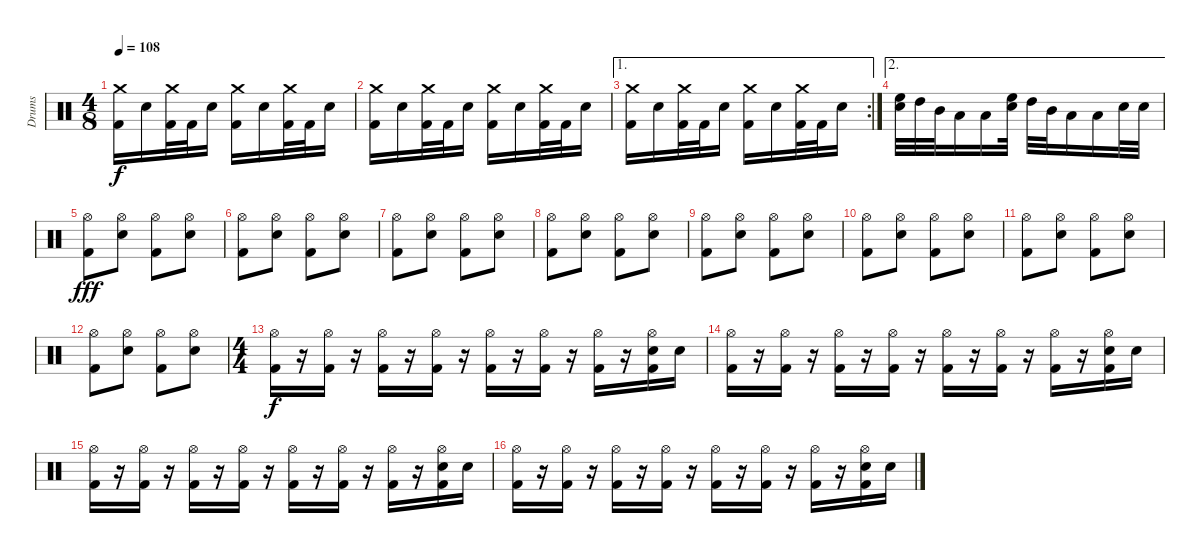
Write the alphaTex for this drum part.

\track ("Drums" "Drums") {instrument percussion}
\staff {score}
\articulation defaults
\ts (4 8)
\tempo 108
\clef neutral
\ks c
("Crash medium (hit)" "Kick (hit) 2").16{dy f} "Electric Snare (hit)".16 ("Crash medium (hit)" "Kick (hit) 2").32 "Kick (hit) 2".32 "Electric Snare (hit)".16 ("Crash medium (hit)" "Kick (hit) 2").16 "Electric Snare (hit)".16 ("Crash medium (hit)" "Kick (hit) 2").32 "Kick (hit) 2".32 "Electric Snare (hit)".16 |
("Crash medium (hit)" "Kick (hit) 2").16 "Electric Snare (hit)".16 ("Crash medium (hit)" "Kick (hit) 2").32 "Kick (hit) 2".32 "Electric Snare (hit)".16 ("Crash medium (hit)" "Kick (hit) 2").16 "Electric Snare (hit)".16 ("Crash medium (hit)" "Kick (hit) 2").32 "Kick (hit) 2".32 "Electric Snare (hit)".16 |
\ae 1
\rc 2
("Crash medium (hit)" "Kick (hit) 2").16 "Electric Snare (hit)".16 ("Crash medium (hit)" "Kick (hit) 2").32 "Kick (hit) 2".32 "Electric Snare (hit)".16 ("Crash medium (hit)" "Kick (hit) 2").16 "Electric Snare (hit)".16 ("Crash medium (hit)" "Kick (hit) 2").32 "Kick (hit) 2".32 "Electric Snare (hit)".16 |
\ae 2
("High Floor Tom (hit)" "Electric Snare (hit)").32 "High Tom (hit)".32 "Mid Tom (hit)".32 "Low Tom (hit)".16 "Low Tom (hit)".16 ("High Floor Tom (hit)" "Electric Snare (hit)").32 "High Tom (hit)".32 "Mid Tom (hit)".32 "Low Tom (hit)".16 "Low Tom (hit)".16 "Electric Snare (hit)".32 "Electric Snare (hit)".32 |
("Hi-Hat (open)" "Kick (hit) 2").8{dy fff} ("Hi-Hat (open)" "Electric Snare (hit)").8 ("Hi-Hat (open)" "Kick (hit) 2").8 ("Hi-Hat (open)" "Electric Snare (hit)").8 |
("Hi-Hat (open)" "Kick (hit) 2").8 ("Hi-Hat (open)" "Electric Snare (hit)").8 ("Hi-Hat (open)" "Kick (hit) 2").8 ("Hi-Hat (open)" "Electric Snare (hit)").8 |
("Hi-Hat (open)" "Kick (hit) 2").8 ("Hi-Hat (open)" "Electric Snare (hit)").8 ("Hi-Hat (open)" "Kick (hit) 2").8 ("Hi-Hat (open)" "Electric Snare (hit)").8 |
("Hi-Hat (open)" "Kick (hit) 2").8 ("Hi-Hat (open)" "Electric Snare (hit)").8 ("Hi-Hat (open)" "Kick (hit) 2").8 ("Hi-Hat (open)" "Electric Snare (hit)").8 |
("Hi-Hat (open)" "Kick (hit) 2").8 ("Hi-Hat (open)" "Electric Snare (hit)").8 ("Hi-Hat (open)" "Kick (hit) 2").8 ("Hi-Hat (open)" "Electric Snare (hit)").8 |
("Hi-Hat (open)" "Kick (hit) 2").8 ("Hi-Hat (open)" "Electric Snare (hit)").8 ("Hi-Hat (open)" "Kick (hit) 2").8 ("Hi-Hat (open)" "Electric Snare (hit)").8 |
("Hi-Hat (open)" "Kick (hit) 2").8 ("Hi-Hat (open)" "Electric Snare (hit)").8 ("Hi-Hat (open)" "Kick (hit) 2").8 ("Hi-Hat (open)" "Electric Snare (hit)").8 |
("Hi-Hat (open)" "Kick (hit) 2").8 ("Hi-Hat (open)" "Electric Snare (hit)").8 ("Hi-Hat (open)" "Kick (hit) 2").8 ("Hi-Hat (open)" "Electric Snare (hit)").8 |
\ts (4 4)
("Hi-Hat (open)" "Kick (hit) 2").16{dy f} r.16 ("Hi-Hat (open)" "Kick (hit) 2").16 r.16 ("Hi-Hat (open)" "Kick (hit) 2").16 r.16 ("Hi-Hat (open)" "Kick (hit) 2").16 r.16 ("Hi-Hat (open)" "Kick (hit) 2").16 r.16 ("Hi-Hat (open)" "Kick (hit) 2").16 r.16 ("Hi-Hat (open)" "Kick (hit) 2").16 r.16 ("Hi-Hat (open)" "Electric Snare (hit)" "Kick (hit) 2").16 "Electric Snare (hit)".16 |
("Hi-Hat (open)" "Kick (hit) 2").16 r.16 ("Hi-Hat (open)" "Kick (hit) 2").16 r.16 ("Hi-Hat (open)" "Kick (hit) 2").16 r.16 ("Hi-Hat (open)" "Kick (hit) 2").16 r.16 ("Hi-Hat (open)" "Kick (hit) 2").16 r.16 ("Hi-Hat (open)" "Kick (hit) 2").16 r.16 ("Hi-Hat (open)" "Kick (hit) 2").16 r.16 ("Hi-Hat (open)" "Electric Snare (hit)" "Kick (hit) 2").16 "Electric Snare (hit)".16 |
("Hi-Hat (open)" "Kick (hit) 2").16 r.16 ("Hi-Hat (open)" "Kick (hit) 2").16 r.16 ("Hi-Hat (open)" "Kick (hit) 2").16 r.16 ("Hi-Hat (open)" "Kick (hit) 2").16 r.16 ("Hi-Hat (open)" "Kick (hit) 2").16 r.16 ("Hi-Hat (open)" "Kick (hit) 2").16 r.16 ("Hi-Hat (open)" "Kick (hit) 2").16 r.16 ("Hi-Hat (open)" "Electric Snare (hit)" "Kick (hit) 2").16 "Electric Snare (hit)".16 |
("Hi-Hat (open)" "Kick (hit) 2").16 r.16 ("Hi-Hat (open)" "Kick (hit) 2").16 r.16 ("Hi-Hat (open)" "Kick (hit) 2").16 r.16 ("Hi-Hat (open)" "Kick (hit) 2").16 r.16 ("Hi-Hat (open)" "Kick (hit) 2").16 r.16 ("Hi-Hat (open)" "Kick (hit) 2").16 r.16 ("Hi-Hat (open)" "Kick (hit) 2").16 r.16 ("Hi-Hat (open)" "Electric Snare (hit)" "Kick (hit) 2").16 "Electric Snare (hit)".16
